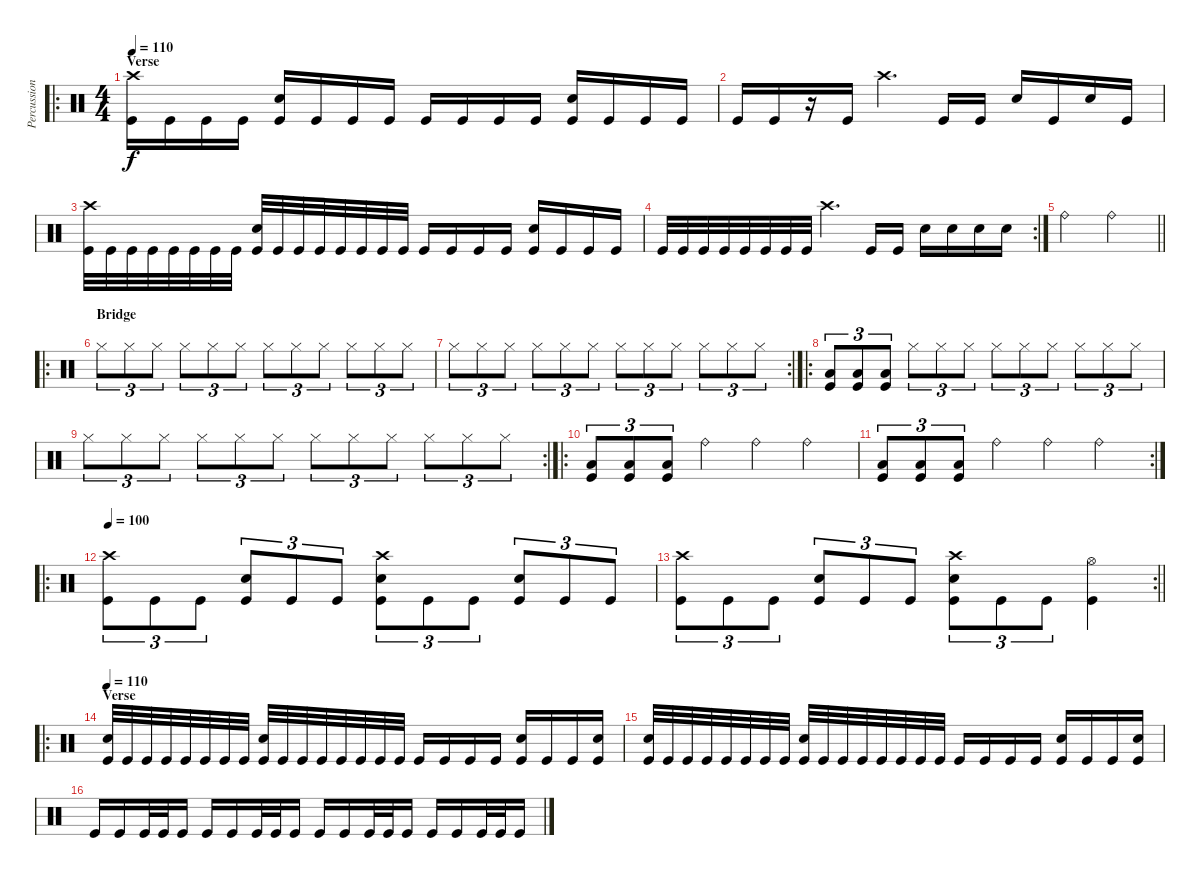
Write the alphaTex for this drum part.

\track ("Percussion" "Percussion") {instrument percussion}
\staff {score}
\articulation defaults
\ro
\ts (4 4)
\section ("" "Verse")
\tempo 110
\clef neutral
\ks c
("Crash high (hit)" "Kick (hit)").16{dy f} "Kick (hit)".16 "Kick (hit)".16 "Kick (hit)".16 ("Electric Snare (hit)" "Kick (hit)").16 "Kick (hit)".16 "Kick (hit)".16 "Kick (hit)".16 "Kick (hit)".16 "Kick (hit)".16 "Kick (hit)".16 "Kick (hit)".16 ("Electric Snare (hit)" "Kick (hit)").16 "Kick (hit)".16 "Kick (hit)".16 "Kick (hit)".16 |
"Kick (hit)".16 "Kick (hit)".16 r.16 "Kick (hit)".16 "Crash high (hit)".4{d} "Kick (hit)".16 "Kick (hit)".16 "Electric Snare (hit)".16 "Kick (hit)".16 "Electric Snare (hit)".16 "Kick (hit)".16 |
("Crash high (hit)" "Kick (hit)").32 "Kick (hit)".32 "Kick (hit)".32 "Kick (hit)".32 "Kick (hit)".32 "Kick (hit)".32 "Kick (hit)".32 "Kick (hit)".32 ("Electric Snare (hit)" "Kick (hit)").32 "Kick (hit)".32 "Kick (hit)".32 "Kick (hit)".32 "Kick (hit)".32 "Kick (hit)".32 "Kick (hit)".32 "Kick (hit)".32 "Kick (hit)".16 "Kick (hit)".16 "Kick (hit)".16 "Kick (hit)".16 ("Electric Snare (hit)" "Kick (hit)").16 "Kick (hit)".16 "Kick (hit)".16 "Kick (hit)".16 |
\rc 2 "Kick (hit)".32 "Kick (hit)".32 "Kick (hit)".32 "Kick (hit)".32 "Kick (hit)".32 "Kick (hit)".32 "Kick (hit)".32 "Kick (hit)".32 "Crash high (hit)".4{d} "Kick (hit)".16 "Kick (hit)".16 "Electric Snare (hit)".16 "Electric Snare (hit)".16 "Electric Snare (hit)".16 "Electric Snare (hit)".16
|
\barLineRight lightlight "Ride (bell)".2 "Ride (bell)".2
|
\ro
\section ("" "Bridge")
"Hi-Hat (closed)".8{tu (3 2)} "Hi-Hat (closed)".8{tu (3 2)} "Hi-Hat (closed)".8{tu (3 2)} "Hi-Hat (closed)".8{tu (3 2)} "Hi-Hat (closed)".8{tu (3 2)} "Hi-Hat (closed)".8{tu (3 2)} "Hi-Hat (closed)".8{tu (3 2)} "Hi-Hat (closed)".8{tu (3 2)} "Hi-Hat (closed)".8{tu (3 2)} "Hi-Hat (closed)".8{tu (3 2)} "Hi-Hat (closed)".8{tu (3 2)} "Hi-Hat (closed)".8{tu (3 2)} |
\rc 2 "Hi-Hat (closed)".8{tu (3 2)} "Hi-Hat (closed)".8{tu (3 2)} "Hi-Hat (closed)".8{tu (3 2)} "Hi-Hat (closed)".8{tu (3 2)} "Hi-Hat (closed)".8{tu (3 2)} "Hi-Hat (closed)".8{tu (3 2)} "Hi-Hat (closed)".8{tu (3 2)} "Hi-Hat (closed)".8{tu (3 2)} "Hi-Hat (closed)".8{tu (3 2)} "Hi-Hat (closed)".8{tu (3 2)} "Hi-Hat (closed)".8{tu (3 2)} "Hi-Hat (closed)".8{tu (3 2)}
|
\ro
("Low Floor Tom (hit)" "Kick (hit)").8{tu (3 2)} ("Low Floor Tom (hit)" "Kick (hit)").8{tu (3 2)} ("Low Floor Tom (hit)" "Kick (hit)").8{tu (3 2)} "Hi-Hat (closed)".8{tu (3 2)} "Hi-Hat (closed)".8{tu (3 2)} "Hi-Hat (closed)".8{tu (3 2)} "Hi-Hat (closed)".8{tu (3 2)} "Hi-Hat (closed)".8{tu (3 2)} "Hi-Hat (closed)".8{tu (3 2)} "Hi-Hat (closed)".8{tu (3 2)} "Hi-Hat (closed)".8{tu (3 2)} "Hi-Hat (closed)".8{tu (3 2)} |
\rc 2 "Hi-Hat (closed)".8{tu (3 2)} "Hi-Hat (closed)".8{tu (3 2)} "Hi-Hat (closed)".8{tu (3 2)} "Hi-Hat (closed)".8{tu (3 2)} "Hi-Hat (closed)".8{tu (3 2)} "Hi-Hat (closed)".8{tu (3 2)} "Hi-Hat (closed)".8{tu (3 2)} "Hi-Hat (closed)".8{tu (3 2)} "Hi-Hat (closed)".8{tu (3 2)} "Hi-Hat (closed)".8{tu (3 2)} "Hi-Hat (closed)".8{tu (3 2)} "Hi-Hat (closed)".8{tu (3 2)}
|
\ro
("Low Floor Tom (hit)" "Kick (hit)").8{tu (3 2)} ("Low Floor Tom (hit)" "Kick (hit)").8{tu (3 2)} ("Low Floor Tom (hit)" "Kick (hit)").8{tu (3 2)} "Ride (bell)".4 "Ride (bell)".4 "Ride (bell)".4 |
\rc 2
("Low Floor Tom (hit)" "Kick (hit)").8{tu (3 2)} ("Low Floor Tom (hit)" "Kick (hit)").8{tu (3 2)} ("Low Floor Tom (hit)" "Kick (hit)").8{tu (3 2)} "Ride (bell)".4 "Ride (bell)".4 "Ride (bell)".4 |
\ro
\tempo 80
\tempo 100
("Crash high (hit)" "Kick (hit)").8{tu (3 2)} "Kick (hit)".8{tu (3 2)} "Kick (hit)".8{tu (3 2)} ("Electric Snare (hit)" "Kick (hit)").8{tu (3 2)} "Kick (hit)".8{tu (3 2)} "Kick (hit)".8{tu (3 2)} ("Crash high (hit)" "Electric Snare (hit)" "Kick (hit)").8{tu (3 2)} "Kick (hit)".8{tu (3 2)} "Kick (hit)".8{tu (3 2)} ("Electric Snare (hit)" "Kick (hit)").8{tu (3 2)} "Kick (hit)".8{tu (3 2)} "Kick (hit)".8{tu (3 2)} |
\rc 2
\barLineRight lightlight
("Crash high (hit)" "Kick (hit)").8{tu (3 2)} "Kick (hit)".8{tu (3 2)} "Kick (hit)".8{tu (3 2)} ("Electric Snare (hit)" "Kick (hit)").8{tu (3 2)} "Kick (hit)".8{tu (3 2)} "Kick (hit)".8{tu (3 2)} ("Crash high (hit)" "Electric Snare (hit)" "Kick (hit)").8{tu (3 2)} "Kick (hit)".8{tu (3 2)} "Kick (hit)".8{tu (3 2)} ("Hi-Hat (open)" "Kick (hit)").4 |
\ro
\section ("" "Verse")
\tempo 110
("Electric Snare (hit)" "Kick (hit)").32 "Kick (hit)".32 "Kick (hit)".32 "Kick (hit)".32 "Kick (hit)".32 "Kick (hit)".32 "Kick (hit)".32 "Kick (hit)".32 ("Electric Snare (hit)" "Kick (hit)").32 "Kick (hit)".32 "Kick (hit)".32 "Kick (hit)".32 "Kick (hit)".32 "Kick (hit)".32 "Kick (hit)".32 "Kick (hit)".32 "Kick (hit)".16 "Kick (hit)".16 "Kick (hit)".16 "Kick (hit)".16 ("Electric Snare (hit)" "Kick (hit)").16 "Kick (hit)".16 "Kick (hit)".16 ("Electric Snare (hit)" "Kick (hit)").16 |
("Electric Snare (hit)" "Kick (hit)").32 "Kick (hit)".32 "Kick (hit)".32 "Kick (hit)".32 "Kick (hit)".32 "Kick (hit)".32 "Kick (hit)".32 "Kick (hit)".32 ("Electric Snare (hit)" "Kick (hit)").32 "Kick (hit)".32 "Kick (hit)".32 "Kick (hit)".32 "Kick (hit)".32 "Kick (hit)".32 "Kick (hit)".32 "Kick (hit)".32 "Kick (hit)".16 "Kick (hit)".16 "Kick (hit)".16 "Kick (hit)".16 ("Electric Snare (hit)" "Kick (hit)").16 "Kick (hit)".16 "Kick (hit)".16 ("Electric Snare (hit)" "Kick (hit)").16 |
"Kick (hit)".16 "Kick (hit)".16 "Kick (hit)".32 "Kick (hit)".32 "Kick (hit)".16 "Kick (hit)".16 "Kick (hit)".16 "Kick (hit)".32 "Kick (hit)".32 "Kick (hit)".16 "Kick (hit)".16 "Kick (hit)".16 "Kick (hit)".32 "Kick (hit)".32 "Kick (hit)".16 "Kick (hit)".16 "Kick (hit)".16 "Kick (hit)".32 "Kick (hit)".32 "Kick (hit)".16
